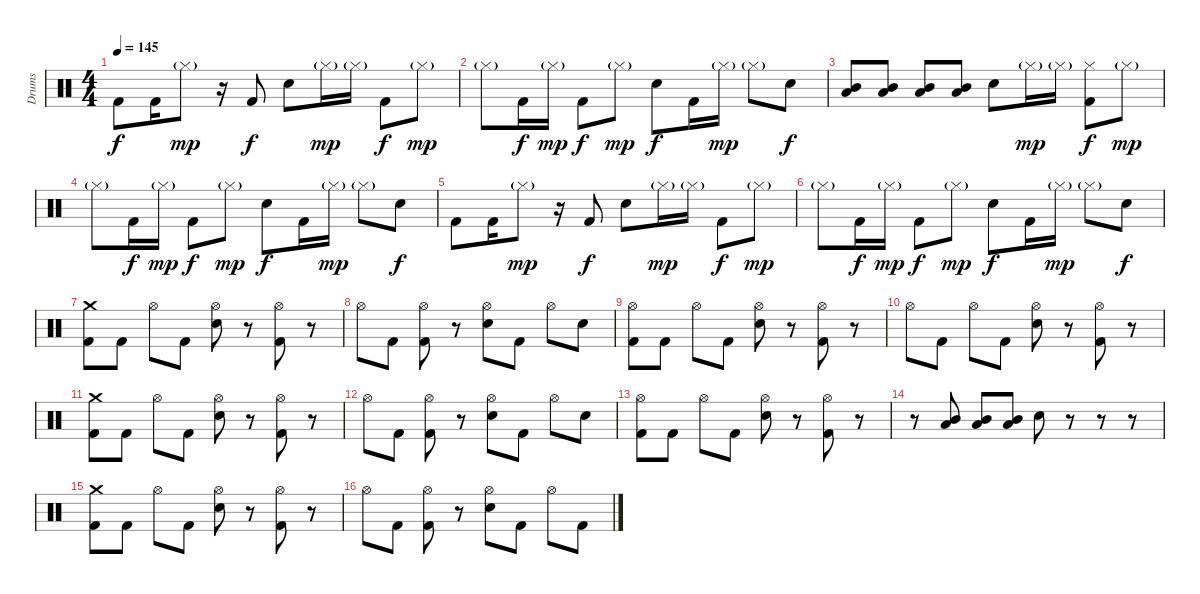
\track ("Drums" "Drums") {instrument percussion}
\staff {score}
\articulation defaults
\ts (4 4)
\tempo 145
\clef neutral
\ks c "Kick (hit) 2".8{dy f} "Kick (hit) 2".16 "Hi-Hat (closed)"{g}.8{dy mp}
r.16 "Kick (hit) 2".8{dy f} "Electric Snare (hit)".8 "Hi-Hat (closed)"{g}.16{dy mp} "Hi-Hat (closed)"{g}.16 "Kick (hit) 2".8{dy f} "Hi-Hat (closed)"{g}.8{dy mp} |
"Hi-Hat (closed)"{g}.8 "Kick (hit) 2".16{dy f} "Hi-Hat (closed)"{g}.16{dy mp} "Kick (hit) 2".8{dy f} "Hi-Hat (closed)"{g}.8{dy mp} "Electric Snare (hit)".8{dy f} "Kick (hit) 2".16 "Hi-Hat (closed)"{g}.16{dy mp} "Hi-Hat (closed)"{g}.8 "Electric Snare (hit)".8{dy f} |
("Mid Tom (hit)" "Low Tom (hit)").8 ("Mid Tom (hit)" "Low Tom (hit)").8 ("Mid Tom (hit)" "Low Tom (hit)").8 ("Mid Tom (hit)" "Low Tom (hit)").8 "Electric Snare (hit)".8 "Hi-Hat (closed)"{g}.16{dy mp} "Hi-Hat (closed)"{g}.16 ("Hi-Hat (closed)" "Kick (hit) 2").8{dy f} "Hi-Hat (closed)"{g}.8{dy mp} |
"Hi-Hat (closed)"{g}.8 "Kick (hit) 2".16{dy f} "Hi-Hat (closed)"{g}.16{dy mp} "Kick (hit) 2".8{dy f} "Hi-Hat (closed)"{g}.8{dy mp} "Electric Snare (hit)".8{dy f} "Kick (hit) 2".16 "Hi-Hat (closed)"{g}.16{dy mp} "Hi-Hat (closed)"{g}.8 "Electric Snare (hit)".8{dy f} |
"Kick (hit) 2".8 "Kick (hit) 2".16 "Hi-Hat (closed)"{g}.8{dy mp} r.16 "Kick (hit) 2".8{dy f} "Electric Snare (hit)".8 "Hi-Hat (closed)"{g}.16{dy mp} "Hi-Hat (closed)"{g}.16 "Kick (hit) 2".8{dy f} "Hi-Hat (closed)"{g}.8{dy mp} |
"Hi-Hat (closed)"{g}.8 "Kick (hit) 2".16{dy f} "Hi-Hat (closed)"{g}.16{dy mp} "Kick (hit) 2".8{dy f} "Hi-Hat (closed)"{g}.8{dy mp} "Electric Snare (hit)".8{dy f} "Kick (hit) 2".16 "Hi-Hat (closed)"{g}.16{dy mp} "Hi-Hat (closed)"{g}.8 "Electric Snare (hit)".8{dy f} |
("Crash medium (hit)" "Kick (hit) 2").8 "Kick (hit) 2".8 "Hi-Hat (open)".8 "Kick (hit) 2".8 ("Hi-Hat (open)" "Electric Snare (hit)").8 r.8 ("Hi-Hat (open)" "Kick (hit) 2").8 r.8 |
"Hi-Hat (open)".8 "Kick (hit) 2".8 ("Hi-Hat (open)" "Kick (hit) 2").8 r.8 ("Hi-Hat (open)" "Electric Snare (hit)").8 "Kick (hit) 2".8 "Hi-Hat (open)".8 "Electric Snare (hit)".8 |
("Hi-Hat (open)" "Kick (hit) 2").8 "Kick (hit) 2".8 "Hi-Hat (open)".8 "Kick (hit) 2".8 ("Hi-Hat (open)" "Electric Snare (hit)").8 r.8 ("Hi-Hat (open)" "Kick (hit) 2").8 r.8 |
"Hi-Hat (open)".8 "Kick (hit) 2".8 "Hi-Hat (open)".8 "Kick (hit) 2".8 ("Hi-Hat (open)" "Electric Snare (hit)").8 r.8 ("Hi-Hat (open)" "Kick (hit) 2").8 r.8 |
("Crash medium (hit)" "Kick (hit) 2").8 "Kick (hit) 2".8 "Hi-Hat (open)".8 "Kick (hit) 2".8 ("Hi-Hat (open)" "Electric Snare (hit)").8 r.8 ("Hi-Hat (open)" "Kick (hit) 2").8 r.8 |
"Hi-Hat (open)".8 "Kick (hit) 2".8 ("Hi-Hat (open)" "Kick (hit) 2").8 r.8 ("Hi-Hat (open)" "Electric Snare (hit)").8 "Kick (hit) 2".8 "Hi-Hat (open)".8 "Electric Snare (hit)".8 |
("Hi-Hat (open)" "Kick (hit) 2").8 "Kick (hit) 2".8 "Hi-Hat (open)".8 "Kick (hit) 2".8 ("Hi-Hat (open)" "Electric Snare (hit)").8 r.8 ("Hi-Hat (open)" "Kick (hit) 2").8 r.8 |
r.8 ("Mid Tom (hit)" "Low Tom (hit)").8 ("Mid Tom (hit)" "Low Tom (hit)").8 ("Mid Tom (hit)" "Low Tom (hit)").8 "Electric Snare (hit)".8 r.8 r.8 r.8 |
("Crash medium (hit)" "Kick (hit) 2").8 "Kick (hit) 2".8 "Hi-Hat (open)".8 "Kick (hit) 2".8 ("Hi-Hat (open)" "Electric Snare (hit)").8 r.8 ("Hi-Hat (open)" "Kick (hit) 2").8 r.8 |
"Hi-Hat (open)".8 "Kick (hit) 2".8 ("Hi-Hat (open)" "Kick (hit) 2").8 r.8 ("Hi-Hat (open)" "Electric Snare (hit)").8 "Kick (hit) 2".8 "Hi-Hat (open)".8 "Kick (hit) 2".8
